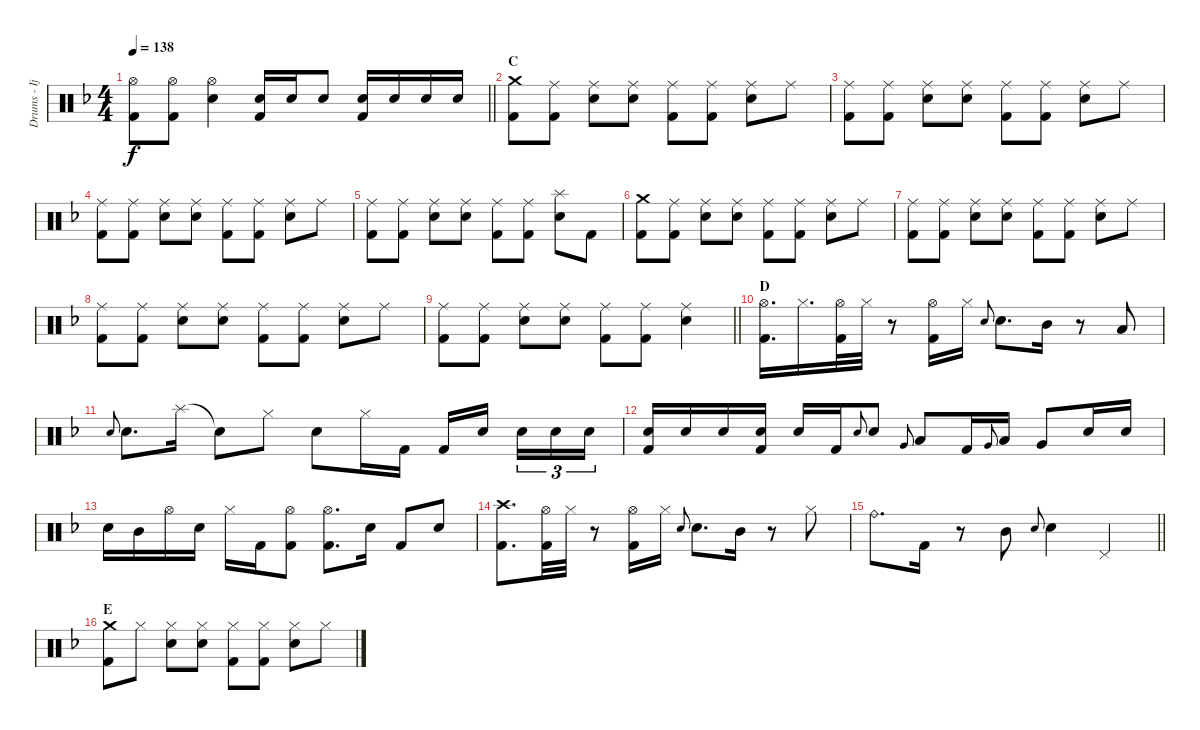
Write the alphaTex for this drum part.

\track ("Drums - Ijichi" "Drums - Ij") {instrument percussion}
\staff {score}
\articulation defaults
\ts (4 4)
\tempo 138
\clef neutral
\barLineRight lightlight
\ks f
("Hi-Hat (open)" "Kick (hit) 2").8{dy f} ("Hi-Hat (open)" "Kick (hit) 2").8 ("Hi-Hat (open)" "Electric Snare (hit)").4 ("Electric Snare (hit)" "Kick (hit) 2").16 "Electric Snare (hit)".16 "Electric Snare (hit)".8 ("Electric Snare (hit)" "Kick (hit) 2").16 "Electric Snare (hit)".16 "Electric Snare (hit)".16 "Electric Snare (hit)".16 |
\section ("" "C")
("Crash medium (hit)" "Kick (hit) 2").8 ("Ride (middle)" "Kick (hit) 2").8 ("Ride (middle)" "Electric Snare (hit)").8 ("Ride (middle)" "Electric Snare (hit)").8 ("Ride (middle)" "Kick (hit) 2").8 ("Ride (middle)" "Kick (hit) 2").8 ("Ride (middle)" "Electric Snare (hit)").8 "Ride (middle)".8 |
("Ride (middle)" "Kick (hit) 2").8 ("Ride (middle)" "Kick (hit) 2").8 ("Ride (middle)" "Electric Snare (hit)").8 ("Ride (middle)" "Electric Snare (hit)").8 ("Ride (middle)" "Kick (hit) 2").8 ("Ride (middle)" "Kick (hit) 2").8 ("Ride (middle)" "Electric Snare (hit)").8 "Ride (middle)".8 |
("Ride (middle)" "Kick (hit) 2").8 ("Ride (middle)" "Kick (hit) 2").8 ("Ride (middle)" "Electric Snare (hit)").8 ("Ride (middle)" "Electric Snare (hit)").8 ("Ride (middle)" "Kick (hit) 2").8 ("Ride (middle)" "Kick (hit) 2").8 ("Ride (middle)" "Electric Snare (hit)").8 "Ride (middle)".8 |
("Ride (middle)" "Kick (hit) 2").8 ("Ride (middle)" "Kick (hit) 2").8 ("Ride (middle)" "Electric Snare (hit)").8 ("Ride (middle)" "Electric Snare (hit)").8 ("Ride (middle)" "Kick (hit) 2").8 ("Ride (middle)" "Kick (hit) 2").8 ("Splash (hit)" "Electric Snare (hit)").8 "Kick (hit) 2".8 |
("Crash medium (hit)" "Kick (hit) 2").8 ("Ride (middle)" "Kick (hit) 2").8 ("Ride (middle)" "Electric Snare (hit)").8 ("Ride (middle)" "Electric Snare (hit)").8 ("Ride (middle)" "Kick (hit) 2").8 ("Ride (middle)" "Kick (hit) 2").8 ("Ride (middle)" "Electric Snare (hit)").8 "Ride (middle)".8 |
("Ride (middle)" "Kick (hit) 2").8 ("Ride (middle)" "Kick (hit) 2").8 ("Ride (middle)" "Electric Snare (hit)").8 ("Ride (middle)" "Electric Snare (hit)").8 ("Ride (middle)" "Kick (hit) 2").8 ("Ride (middle)" "Kick (hit) 2").8 ("Ride (middle)" "Electric Snare (hit)").8 "Ride (middle)".8 |
("Ride (middle)" "Kick (hit) 2").8 ("Ride (middle)" "Kick (hit) 2").8 ("Ride (middle)" "Electric Snare (hit)").8 ("Ride (middle)" "Electric Snare (hit)").8 ("Ride (middle)" "Kick (hit) 2").8 ("Ride (middle)" "Kick (hit) 2").8 ("Ride (middle)" "Electric Snare (hit)").8 "Ride (middle)".8 |
\barLineRight lightlight
("Ride (middle)" "Kick (hit) 2").8 ("Ride (middle)" "Kick (hit) 2").8 ("Ride (middle)" "Electric Snare (hit)").8 ("Ride (middle)" "Electric Snare (hit)").8 ("Ride (middle)" "Kick (hit) 2").8 ("Ride (middle)" "Kick (hit) 2").8 ("Ride (middle)" "Electric Snare (hit)").4 |
\section ("" "D")
("Hi-Hat (open)" "Kick (hit) 2").16{d} "Hi-Hat (closed)".16{d} ("Hi-Hat (open)" "Kick (hit) 2").32 "Hi-Hat (closed)".32 r.8 ("Hi-Hat (open)" "Kick (hit) 2").16 "Hi-Hat (closed)".16 "Electric Snare (hit)".8{gr onbeat} "Electric Snare (hit)".8{d} "Mid Tom (hit)".16 r.8 "Low Tom (hit)".8 |
"Electric Snare (hit)".8{gr onbeat} "Electric Snare (hit)".8{d} "Splash (hit)".16 "Snare (hit)"{t}.8 "Hi-Hat (closed)".8 "Electric Snare (hit)".8 "Hi-Hat (closed)".16 "Kick (hit) 2".16 "Kick (hit) 2".16 "Electric Snare (hit)".16{beam splitsecondary} "Electric Snare (hit)".16{tu (3 2)} "Electric Snare (hit)".16{tu (3 2)} "Electric Snare (hit)".16{tu (3 2)} |
("Electric Snare (hit)" "Kick (hit) 2").16 "Electric Snare (hit)".16 "Electric Snare (hit)".16 ("Electric Snare (hit)" "Kick (hit) 2").16 "Electric Snare (hit)".16 "Kick (hit) 2".16 "Electric Snare (hit)".8{gr onbeat} "Electric Snare (hit)".8 "Very Low Tom (hit)".8{gr onbeat} "Low Tom (hit)".8 "Kick (hit) 2".16 "Very Low Tom (hit)".8{gr onbeat} "Low Tom (hit)".16 "Very Low Tom (hit)".8 "Electric Snare (hit)".16 "Electric Snare (hit)".16 |
"Electric Snare (hit)".16 "Mid Tom (hit)".16 "Hi-Hat (open)".16 "Electric Snare (hit)".16 "Hi-Hat (closed)".16 "Kick (hit) 2".16 ("Hi-Hat (open)" "Kick (hit) 2").8 ("Hi-Hat (open)" "Kick (hit) 2").8{d} "Electric Snare (hit)".16 "Kick (hit) 2".8 "Electric Snare (hit)".8 |
("Crash high (hit)" "Kick (hit) 2").8{d} ("Hi-Hat (open)" "Kick (hit) 2").32 "Hi-Hat (closed)".32 r.8 ("Hi-Hat (open)" "Kick (hit) 2").16 "Hi-Hat (closed)".16 "Electric Snare (hit)".8{gr onbeat} "Electric Snare (hit)".8{d} "Mid Tom (hit)".16 r.8 "Hi-Hat (closed)".8 |
\barLineRight lightlight "Ride (bell)".8{d} "Kick (hit) 2".16
r.8 "Mid Tom (hit)".8 "Electric Snare (hit)".8{gr onbeat} "Electric Snare (hit)".4 "Pedal Hi-Hat (hit)".4 |
\section ("" "E")
("Crash medium (hit)" "Kick (hit) 2").8 "Hi-Hat (closed)".8 ("Hi-Hat (closed)" "Electric Snare (hit)").8 ("Hi-Hat (closed)" "Electric Snare (hit)").8 ("Hi-Hat (closed)" "Kick (hit) 2").8 ("Hi-Hat (closed)" "Kick (hit) 2").8 ("Hi-Hat (closed)" "Electric Snare (hit)").8 "Hi-Hat (closed)".8
